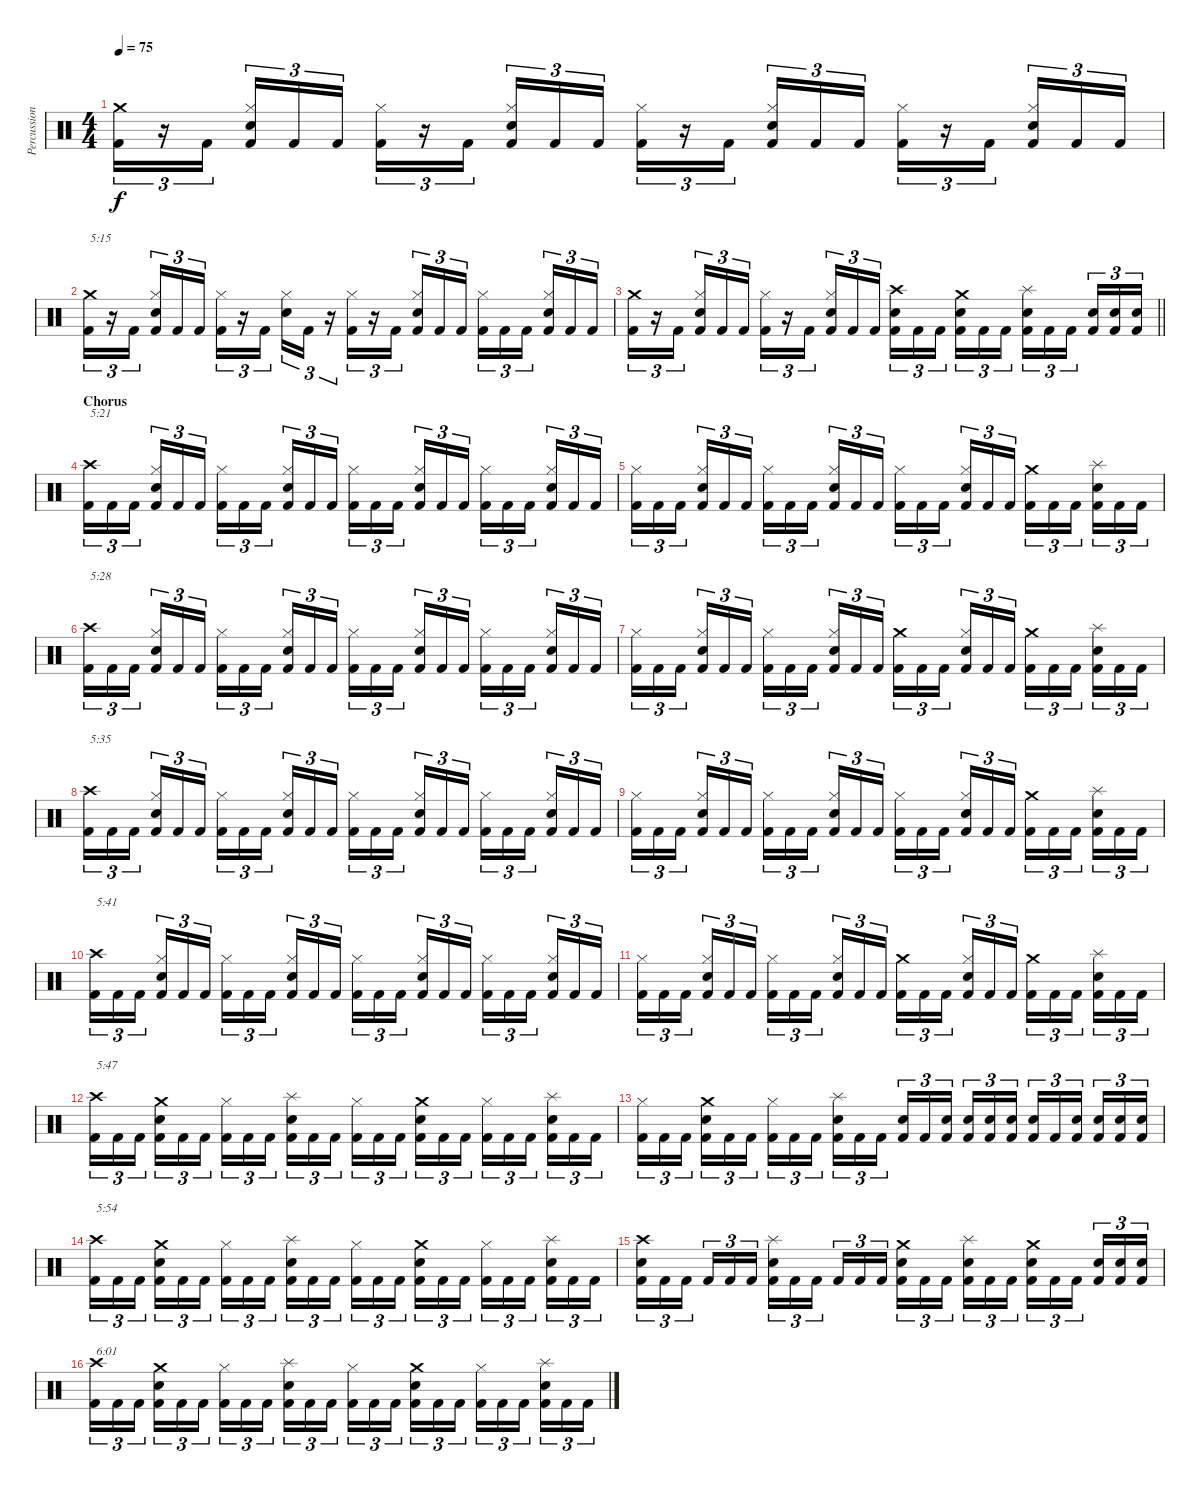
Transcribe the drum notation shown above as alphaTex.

\track ("Percussion" "Percussion") {instrument percussion}
\staff {score}
\articulation defaults
\ts (4 4)
\tempo 75
\clef neutral
\ks c
("Crash medium (hit)" "Kick (hit) 2").16{tu (3 2) dy f} r.16{tu (3 2)} "Kick (hit) 2".16{tu (3 2)} ("Hi-Hat (closed)" "Snare (hit) 2" "Kick (hit) 2").16{tu (3 2)} "Kick (hit) 2".16{tu (3 2)} "Kick (hit) 2".16{tu (3 2)} ("Hi-Hat (closed)" "Kick (hit) 2").16{tu (3 2)} r.16{tu (3 2)} "Kick (hit) 2".16{tu (3 2)} ("Hi-Hat (closed)" "Snare (hit) 2" "Kick (hit) 2").16{tu (3 2)} "Kick (hit) 2".16{tu (3 2)} "Kick (hit) 2".16{tu (3 2)} ("Hi-Hat (closed)" "Kick (hit) 2").16{tu (3 2)} r.16{tu (3 2)} "Kick (hit) 2".16{tu (3 2)} ("Hi-Hat (closed)" "Snare (hit) 2" "Kick (hit) 2").16{tu (3 2)} "Kick (hit) 2".16{tu (3 2)} "Kick (hit) 2".16{tu (3 2)} ("Hi-Hat (closed)" "Kick (hit) 2").16{tu (3 2)} r.16{tu (3 2)} "Kick (hit) 2".16{tu (3 2)} ("Hi-Hat (closed)" "Snare (hit) 2" "Kick (hit) 2").16{tu (3 2)} "Kick (hit) 2".16{tu (3 2)} "Kick (hit) 2".16{tu (3 2)} |
("Crash medium (hit)" "Kick (hit) 2").16{tu (3 2) txt "5:15"} r.16{tu (3 2)} "Kick (hit) 2".16{tu (3 2)} ("Hi-Hat (closed)" "Snare (hit) 2" "Kick (hit) 2").16{tu (3 2)} "Kick (hit) 2".16{tu (3 2)} "Kick (hit) 2".16{tu (3 2)} ("Hi-Hat (closed)" "Kick (hit) 2").16{tu (3 2)} r.16{tu (3 2)} "Kick (hit) 2".16{tu (3 2)} ("Hi-Hat (closed)" "Snare (hit) 2").16{tu (3 2)} "Kick (hit) 2".16{tu (3 2)} r.16{tu (3 2)} ("Hi-Hat (closed)" "Kick (hit) 2").16{tu (3 2)} r.16{tu (3 2)} "Kick (hit) 2".16{tu (3 2)} ("Hi-Hat (closed)" "Snare (hit) 2" "Kick (hit) 2").16{tu (3 2)} "Kick (hit) 2".16{tu (3 2)} "Kick (hit) 2".16{tu (3 2)} ("Hi-Hat (closed)" "Kick (hit) 2").16{tu (3 2)} "Kick (hit) 2".16{tu (3 2)} "Kick (hit) 2".16{tu (3 2)} ("Hi-Hat (closed)" "Snare (hit) 2" "Kick (hit) 2").16{tu (3 2)} "Kick (hit) 2".16{tu (3 2)} "Kick (hit) 2".16{tu (3 2)} |
\barLineRight lightlight
("Crash medium (hit)" "Kick (hit) 2").16{tu (3 2)} r.16{tu (3 2)} "Kick (hit) 2".16{tu (3 2)} ("Hi-Hat (closed)" "Snare (hit) 2" "Kick (hit) 2").16{tu (3 2)} "Kick (hit) 2".16{tu (3 2)} "Kick (hit) 2".16{tu (3 2)} ("Hi-Hat (closed)" "Kick (hit) 2").16{tu (3 2)} r.16{tu (3 2)} "Kick (hit) 2".16{tu (3 2)} ("Hi-Hat (closed)" "Snare (hit) 2" "Kick (hit) 2").16{tu (3 2)} "Kick (hit) 2".16{tu (3 2)} "Kick (hit) 2".16{tu (3 2)} ("Crash high (hit)" "Snare (hit) 2" "Kick (hit) 2").16{tu (3 2)} "Kick (hit) 2".16{tu (3 2)} "Kick (hit) 2".16{tu (3 2)} ("Crash medium (hit)" "Snare (hit) 2" "Kick (hit) 2").16{tu (3 2)} "Kick (hit) 2".16{tu (3 2)} "Kick (hit) 2".16{tu (3 2)} ("Splash (hit)" "Snare (hit) 2" "Kick (hit) 2").16{tu (3 2)} "Kick (hit) 2".16{tu (3 2)} "Kick (hit) 2".16{tu (3 2)} ("Snare (hit) 2" "Kick (hit) 2").16{tu (3 2)} ("Snare (hit) 2" "Kick (hit) 2").16{tu (3 2)} ("Snare (hit) 2" "Kick (hit) 2").16{tu (3 2)} |
\section ("" "Chorus")
("Crash high (hit)" "Kick (hit) 2").16{tu (3 2) txt "5:21"} "Kick (hit) 2".16{tu (3 2)} "Kick (hit) 2".16{tu (3 2)} ("Hi-Hat (closed)" "Snare (hit) 2" "Kick (hit) 2").16{tu (3 2)} "Kick (hit) 2".16{tu (3 2)} "Kick (hit) 2".16{tu (3 2)} ("Hi-Hat (closed)" "Kick (hit) 2").16{tu (3 2)} "Kick (hit) 2".16{tu (3 2)} "Kick (hit) 2".16{tu (3 2)} ("Hi-Hat (closed)" "Snare (hit) 2" "Kick (hit) 2").16{tu (3 2)} "Kick (hit) 2".16{tu (3 2)} "Kick (hit) 2".16{tu (3 2)} ("Hi-Hat (closed)" "Kick (hit) 2").16{tu (3 2)} "Kick (hit) 2".16{tu (3 2)} "Kick (hit) 2".16{tu (3 2)} ("Hi-Hat (closed)" "Snare (hit) 2" "Kick (hit) 2").16{tu (3 2)} "Kick (hit) 2".16{tu (3 2)} "Kick (hit) 2".16{tu (3 2)} ("Hi-Hat (closed)" "Kick (hit) 2").16{tu (3 2)} "Kick (hit) 2".16{tu (3 2)} "Kick (hit) 2".16{tu (3 2)} ("Hi-Hat (closed)" "Snare (hit) 2" "Kick (hit) 2").16{tu (3 2)} "Kick (hit) 2".16{tu (3 2)} "Kick (hit) 2".16{tu (3 2)} |
("Hi-Hat (closed)" "Kick (hit) 2").16{tu (3 2)} "Kick (hit) 2".16{tu (3 2)} "Kick (hit) 2".16{tu (3 2)} ("Hi-Hat (closed)" "Snare (hit) 2" "Kick (hit) 2").16{tu (3 2)} "Kick (hit) 2".16{tu (3 2)} "Kick (hit) 2".16{tu (3 2)} ("Hi-Hat (closed)" "Kick (hit) 2").16{tu (3 2)} "Kick (hit) 2".16{tu (3 2)} "Kick (hit) 2".16{tu (3 2)} ("Hi-Hat (closed)" "Snare (hit) 2" "Kick (hit) 2").16{tu (3 2)} "Kick (hit) 2".16{tu (3 2)} "Kick (hit) 2".16{tu (3 2)} ("Hi-Hat (closed)" "Kick (hit) 2").16{tu (3 2)} "Kick (hit) 2".16{tu (3 2)} "Kick (hit) 2".16{tu (3 2)} ("Hi-Hat (closed)" "Snare (hit) 2" "Kick (hit) 2").16{tu (3 2)} "Kick (hit) 2".16{tu (3 2)} "Kick (hit) 2".16{tu (3 2)} ("Crash medium (hit)" "Kick (hit) 2").16{tu (3 2)} "Kick (hit) 2".16{tu (3 2)} "Kick (hit) 2".16{tu (3 2)} ("Splash (hit)" "Snare (hit) 2" "Kick (hit) 2").16{tu (3 2)} "Kick (hit) 2".16{tu (3 2)} "Kick (hit) 2".16{tu (3 2)} |
("Crash high (hit)" "Kick (hit) 2").16{tu (3 2) txt "5:28"} "Kick (hit) 2".16{tu (3 2)} "Kick (hit) 2".16{tu (3 2)} ("Hi-Hat (closed)" "Snare (hit) 2" "Kick (hit) 2").16{tu (3 2)} "Kick (hit) 2".16{tu (3 2)} "Kick (hit) 2".16{tu (3 2)} ("Hi-Hat (closed)" "Kick (hit) 2").16{tu (3 2)} "Kick (hit) 2".16{tu (3 2)} "Kick (hit) 2".16{tu (3 2)} ("Hi-Hat (closed)" "Snare (hit) 2" "Kick (hit) 2").16{tu (3 2)} "Kick (hit) 2".16{tu (3 2)} "Kick (hit) 2".16{tu (3 2)} ("Hi-Hat (closed)" "Kick (hit) 2").16{tu (3 2)} "Kick (hit) 2".16{tu (3 2)} "Kick (hit) 2".16{tu (3 2)} ("Hi-Hat (closed)" "Snare (hit) 2" "Kick (hit) 2").16{tu (3 2)} "Kick (hit) 2".16{tu (3 2)} "Kick (hit) 2".16{tu (3 2)} ("Hi-Hat (closed)" "Kick (hit) 2").16{tu (3 2)} "Kick (hit) 2".16{tu (3 2)} "Kick (hit) 2".16{tu (3 2)} ("Hi-Hat (closed)" "Snare (hit) 2" "Kick (hit) 2").16{tu (3 2)} "Kick (hit) 2".16{tu (3 2)} "Kick (hit) 2".16{tu (3 2)} |
("Hi-Hat (closed)" "Kick (hit) 2").16{tu (3 2)} "Kick (hit) 2".16{tu (3 2)} "Kick (hit) 2".16{tu (3 2)} ("Hi-Hat (closed)" "Snare (hit) 2" "Kick (hit) 2").16{tu (3 2)} "Kick (hit) 2".16{tu (3 2)} "Kick (hit) 2".16{tu (3 2)} ("Hi-Hat (closed)" "Kick (hit) 2").16{tu (3 2)} "Kick (hit) 2".16{tu (3 2)} "Kick (hit) 2".16{tu (3 2)} ("Hi-Hat (closed)" "Snare (hit) 2" "Kick (hit) 2").16{tu (3 2)} "Kick (hit) 2".16{tu (3 2)} "Kick (hit) 2".16{tu (3 2)} ("Crash medium (hit)" "Kick (hit) 2").16{tu (3 2)} "Kick (hit) 2".16{tu (3 2)} "Kick (hit) 2".16{tu (3 2)} ("Hi-Hat (closed)" "Snare (hit) 2" "Kick (hit) 2").16{tu (3 2)} "Kick (hit) 2".16{tu (3 2)} "Kick (hit) 2".16{tu (3 2)} ("Crash medium (hit)" "Kick (hit) 2").16{tu (3 2)} "Kick (hit) 2".16{tu (3 2)} "Kick (hit) 2".16{tu (3 2)} ("Splash (hit)" "Snare (hit) 2" "Kick (hit) 2").16{tu (3 2)} "Kick (hit) 2".16{tu (3 2)} "Kick (hit) 2".16{tu (3 2)} |
("Crash high (hit)" "Kick (hit) 2").16{tu (3 2) txt "5:35"} "Kick (hit) 2".16{tu (3 2)} "Kick (hit) 2".16{tu (3 2)} ("Hi-Hat (closed)" "Snare (hit) 2" "Kick (hit) 2").16{tu (3 2)} "Kick (hit) 2".16{tu (3 2)} "Kick (hit) 2".16{tu (3 2)} ("Hi-Hat (closed)" "Kick (hit) 2").16{tu (3 2)} "Kick (hit) 2".16{tu (3 2)} "Kick (hit) 2".16{tu (3 2)} ("Hi-Hat (closed)" "Snare (hit) 2" "Kick (hit) 2").16{tu (3 2)} "Kick (hit) 2".16{tu (3 2)} "Kick (hit) 2".16{tu (3 2)} ("Hi-Hat (closed)" "Kick (hit) 2").16{tu (3 2)} "Kick (hit) 2".16{tu (3 2)} "Kick (hit) 2".16{tu (3 2)} ("Hi-Hat (closed)" "Snare (hit) 2" "Kick (hit) 2").16{tu (3 2)} "Kick (hit) 2".16{tu (3 2)} "Kick (hit) 2".16{tu (3 2)} ("Hi-Hat (closed)" "Kick (hit) 2").16{tu (3 2)} "Kick (hit) 2".16{tu (3 2)} "Kick (hit) 2".16{tu (3 2)} ("Hi-Hat (closed)" "Snare (hit) 2" "Kick (hit) 2").16{tu (3 2)} "Kick (hit) 2".16{tu (3 2)} "Kick (hit) 2".16{tu (3 2)} |
("Hi-Hat (closed)" "Kick (hit) 2").16{tu (3 2)} "Kick (hit) 2".16{tu (3 2)} "Kick (hit) 2".16{tu (3 2)} ("Hi-Hat (closed)" "Snare (hit) 2" "Kick (hit) 2").16{tu (3 2)} "Kick (hit) 2".16{tu (3 2)} "Kick (hit) 2".16{tu (3 2)} ("Hi-Hat (closed)" "Kick (hit) 2").16{tu (3 2)} "Kick (hit) 2".16{tu (3 2)} "Kick (hit) 2".16{tu (3 2)} ("Hi-Hat (closed)" "Snare (hit) 2" "Kick (hit) 2").16{tu (3 2)} "Kick (hit) 2".16{tu (3 2)} "Kick (hit) 2".16{tu (3 2)} ("Hi-Hat (closed)" "Kick (hit) 2").16{tu (3 2)} "Kick (hit) 2".16{tu (3 2)} "Kick (hit) 2".16{tu (3 2)} ("Hi-Hat (closed)" "Snare (hit) 2" "Kick (hit) 2").16{tu (3 2)} "Kick (hit) 2".16{tu (3 2)} "Kick (hit) 2".16{tu (3 2)} ("Crash medium (hit)" "Kick (hit) 2").16{tu (3 2)} "Kick (hit) 2".16{tu (3 2)} "Kick (hit) 2".16{tu (3 2)} ("Splash (hit)" "Snare (hit) 2" "Kick (hit) 2").16{tu (3 2)} "Kick (hit) 2".16{tu (3 2)} "Kick (hit) 2".16{tu (3 2)} |
("Crash high (hit)" "Kick (hit) 2").16{tu (3 2) txt "5:41"} "Kick (hit) 2".16{tu (3 2)} "Kick (hit) 2".16{tu (3 2)} ("Hi-Hat (closed)" "Snare (hit) 2" "Kick (hit) 2").16{tu (3 2)} "Kick (hit) 2".16{tu (3 2)} "Kick (hit) 2".16{tu (3 2)} ("Hi-Hat (closed)" "Kick (hit) 2").16{tu (3 2)} "Kick (hit) 2".16{tu (3 2)} "Kick (hit) 2".16{tu (3 2)} ("Hi-Hat (closed)" "Snare (hit) 2" "Kick (hit) 2").16{tu (3 2)} "Kick (hit) 2".16{tu (3 2)} "Kick (hit) 2".16{tu (3 2)} ("Hi-Hat (closed)" "Kick (hit) 2").16{tu (3 2)} "Kick (hit) 2".16{tu (3 2)} "Kick (hit) 2".16{tu (3 2)} ("Hi-Hat (closed)" "Snare (hit) 2" "Kick (hit) 2").16{tu (3 2)} "Kick (hit) 2".16{tu (3 2)} "Kick (hit) 2".16{tu (3 2)} ("Hi-Hat (closed)" "Kick (hit) 2").16{tu (3 2)} "Kick (hit) 2".16{tu (3 2)} "Kick (hit) 2".16{tu (3 2)} ("Hi-Hat (closed)" "Snare (hit) 2" "Kick (hit) 2").16{tu (3 2)} "Kick (hit) 2".16{tu (3 2)} "Kick (hit) 2".16{tu (3 2)} |
("Hi-Hat (closed)" "Kick (hit) 2").16{tu (3 2)} "Kick (hit) 2".16{tu (3 2)} "Kick (hit) 2".16{tu (3 2)} ("Hi-Hat (closed)" "Snare (hit) 2" "Kick (hit) 2").16{tu (3 2)} "Kick (hit) 2".16{tu (3 2)} "Kick (hit) 2".16{tu (3 2)} ("Hi-Hat (closed)" "Kick (hit) 2").16{tu (3 2)} "Kick (hit) 2".16{tu (3 2)} "Kick (hit) 2".16{tu (3 2)} ("Hi-Hat (closed)" "Snare (hit) 2" "Kick (hit) 2").16{tu (3 2)} "Kick (hit) 2".16{tu (3 2)} "Kick (hit) 2".16{tu (3 2)} ("Crash medium (hit)" "Kick (hit) 2").16{tu (3 2)} "Kick (hit) 2".16{tu (3 2)} "Kick (hit) 2".16{tu (3 2)} ("Hi-Hat (closed)" "Snare (hit) 2" "Kick (hit) 2").16{tu (3 2)} "Kick (hit) 2".16{tu (3 2)} "Kick (hit) 2".16{tu (3 2)} ("Crash medium (hit)" "Kick (hit) 2").16{tu (3 2)} "Kick (hit) 2".16{tu (3 2)} "Kick (hit) 2".16{tu (3 2)} ("Splash (hit)" "Snare (hit) 2" "Kick (hit) 2").16{tu (3 2)} "Kick (hit) 2".16{tu (3 2)} "Kick (hit) 2".16{tu (3 2)} |
("Crash high (hit)" "Kick (hit) 2").16{tu (3 2) txt "5:47"} "Kick (hit) 2".16{tu (3 2)} "Kick (hit) 2".16{tu (3 2)} ("Crash medium (hit)" "Snare (hit) 2" "Kick (hit) 2").16{tu (3 2)} "Kick (hit) 2".16{tu (3 2)} "Kick (hit) 2".16{tu (3 2)} ("Hi-Hat (closed)" "Kick (hit) 2").16{tu (3 2)} "Kick (hit) 2".16{tu (3 2)} "Kick (hit) 2".16{tu (3 2)} ("Splash (hit)" "Snare (hit) 2" "Kick (hit) 2").16{tu (3 2)} "Kick (hit) 2".16{tu (3 2)} "Kick (hit) 2".16{tu (3 2)} ("Hi-Hat (closed)" "Kick (hit) 2").16{tu (3 2)} "Kick (hit) 2".16{tu (3 2)} "Kick (hit) 2".16{tu (3 2)} ("Crash medium (hit)" "Snare (hit) 2" "Kick (hit) 2").16{tu (3 2)} "Kick (hit) 2".16{tu (3 2)} "Kick (hit) 2".16{tu (3 2)} ("Hi-Hat (closed)" "Kick (hit) 2").16{tu (3 2)} "Kick (hit) 2".16{tu (3 2)} "Kick (hit) 2".16{tu (3 2)} ("Splash (hit)" "Snare (hit) 2" "Kick (hit) 2").16{tu (3 2)} "Kick (hit) 2".16{tu (3 2)} "Kick (hit) 2".16{tu (3 2)} |
("Hi-Hat (closed)" "Kick (hit) 2").16{tu (3 2)} "Kick (hit) 2".16{tu (3 2)} "Kick (hit) 2".16{tu (3 2)} ("Crash medium (hit)" "Snare (hit) 2" "Kick (hit) 2").16{tu (3 2)} "Kick (hit) 2".16{tu (3 2)} "Kick (hit) 2".16{tu (3 2)} ("Hi-Hat (closed)" "Kick (hit) 2").16{tu (3 2)} "Kick (hit) 2".16{tu (3 2)} "Kick (hit) 2".16{tu (3 2)} ("Splash (hit)" "Snare (hit) 2" "Kick (hit) 2").16{tu (3 2)} "Kick (hit) 2".16{tu (3 2)} "Kick (hit) 2".16{tu (3 2)} ("Snare (hit) 2" "Kick (hit) 2").16{tu (3 2)} "Kick (hit) 2".16{tu (3 2)} ("Snare (hit) 2" "Kick (hit) 2").16{tu (3 2)} ("Snare (hit) 2" "Kick (hit) 2").16{tu (3 2)} ("Snare (hit) 2" "Kick (hit) 2").16{tu (3 2)} ("Snare (hit) 2" "Kick (hit) 2").16{tu (3 2)} ("Snare (hit) 2" "Kick (hit) 2").16{tu (3 2)} "Kick (hit) 2".16{tu (3 2)} ("Snare (hit) 2" "Kick (hit) 2").16{tu (3 2)} ("Snare (hit) 2" "Kick (hit) 2").16{tu (3 2)} ("Snare (hit) 2" "Kick (hit) 2").16{tu (3 2)} ("Snare (hit) 2" "Kick (hit) 2").16{tu (3 2)} |
("Crash high (hit)" "Kick (hit) 2").16{tu (3 2) txt "5:54"} "Kick (hit) 2".16{tu (3 2)} "Kick (hit) 2".16{tu (3 2)} ("Crash medium (hit)" "Snare (hit) 2" "Kick (hit) 2").16{tu (3 2)} "Kick (hit) 2".16{tu (3 2)} "Kick (hit) 2".16{tu (3 2)} ("Hi-Hat (closed)" "Kick (hit) 2").16{tu (3 2)} "Kick (hit) 2".16{tu (3 2)} "Kick (hit) 2".16{tu (3 2)} ("Splash (hit)" "Snare (hit) 2" "Kick (hit) 2").16{tu (3 2)} "Kick (hit) 2".16{tu (3 2)} "Kick (hit) 2".16{tu (3 2)} ("Hi-Hat (closed)" "Kick (hit) 2").16{tu (3 2)} "Kick (hit) 2".16{tu (3 2)} "Kick (hit) 2".16{tu (3 2)} ("Crash medium (hit)" "Snare (hit) 2" "Kick (hit) 2").16{tu (3 2)} "Kick (hit) 2".16{tu (3 2)} "Kick (hit) 2".16{tu (3 2)} ("Hi-Hat (closed)" "Kick (hit) 2").16{tu (3 2)} "Kick (hit) 2".16{tu (3 2)} "Kick (hit) 2".16{tu (3 2)} ("Splash (hit)" "Snare (hit) 2" "Kick (hit) 2").16{tu (3 2)} "Kick (hit) 2".16{tu (3 2)} "Kick (hit) 2".16{tu (3 2)} |
("Crash high (hit)" "Snare (hit) 2" "Kick (hit) 2").16{tu (3 2)} "Kick (hit) 2".16{tu (3 2)} "Kick (hit) 2".16{tu (3 2)} "Kick (hit) 2".16{tu (3 2)} "Kick (hit) 2".16{tu (3 2)} "Kick (hit) 2".16{tu (3 2)} ("Splash (hit)" "Snare (hit) 2" "Kick (hit) 2").16{tu (3 2)} "Kick (hit) 2".16{tu (3 2)} "Kick (hit) 2".16{tu (3 2)} "Kick (hit) 2".16{tu (3 2)} "Kick (hit) 2".16{tu (3 2)} "Kick (hit) 2".16{tu (3 2)} ("Crash medium (hit)" "Snare (hit) 2" "Kick (hit) 2").16{tu (3 2)} "Kick (hit) 2".16{tu (3 2)} "Kick (hit) 2".16{tu (3 2)} ("Splash (hit)" "Snare (hit) 2" "Kick (hit) 2").16{tu (3 2)} "Kick (hit) 2".16{tu (3 2)} "Kick (hit) 2".16{tu (3 2)} ("Crash medium (hit)" "Snare (hit) 2" "Kick (hit) 2").16{tu (3 2)} "Kick (hit) 2".16{tu (3 2)} "Kick (hit) 2".16{tu (3 2)} ("Snare (hit) 2" "Kick (hit) 2").16{tu (3 2)} ("Snare (hit) 2" "Kick (hit) 2").16{tu (3 2)} ("Snare (hit) 2" "Kick (hit) 2").16{tu (3 2)} |
("Crash high (hit)" "Kick (hit) 2").16{tu (3 2) txt "6:01"} "Kick (hit) 2".16{tu (3 2)} "Kick (hit) 2".16{tu (3 2)} ("Crash medium (hit)" "Snare (hit) 2" "Kick (hit) 2").16{tu (3 2)} "Kick (hit) 2".16{tu (3 2)} "Kick (hit) 2".16{tu (3 2)} ("Hi-Hat (closed)" "Kick (hit) 2").16{tu (3 2)} "Kick (hit) 2".16{tu (3 2)} "Kick (hit) 2".16{tu (3 2)} ("Splash (hit)" "Snare (hit) 2" "Kick (hit) 2").16{tu (3 2)} "Kick (hit) 2".16{tu (3 2)} "Kick (hit) 2".16{tu (3 2)} ("Hi-Hat (closed)" "Kick (hit) 2").16{tu (3 2)} "Kick (hit) 2".16{tu (3 2)} "Kick (hit) 2".16{tu (3 2)} ("Crash medium (hit)" "Snare (hit) 2" "Kick (hit) 2").16{tu (3 2)} "Kick (hit) 2".16{tu (3 2)} "Kick (hit) 2".16{tu (3 2)} ("Hi-Hat (closed)" "Kick (hit) 2").16{tu (3 2)} "Kick (hit) 2".16{tu (3 2)} "Kick (hit) 2".16{tu (3 2)} ("Splash (hit)" "Snare (hit) 2" "Kick (hit) 2").16{tu (3 2)} "Kick (hit) 2".16{tu (3 2)} "Kick (hit) 2".16{tu (3 2)}
